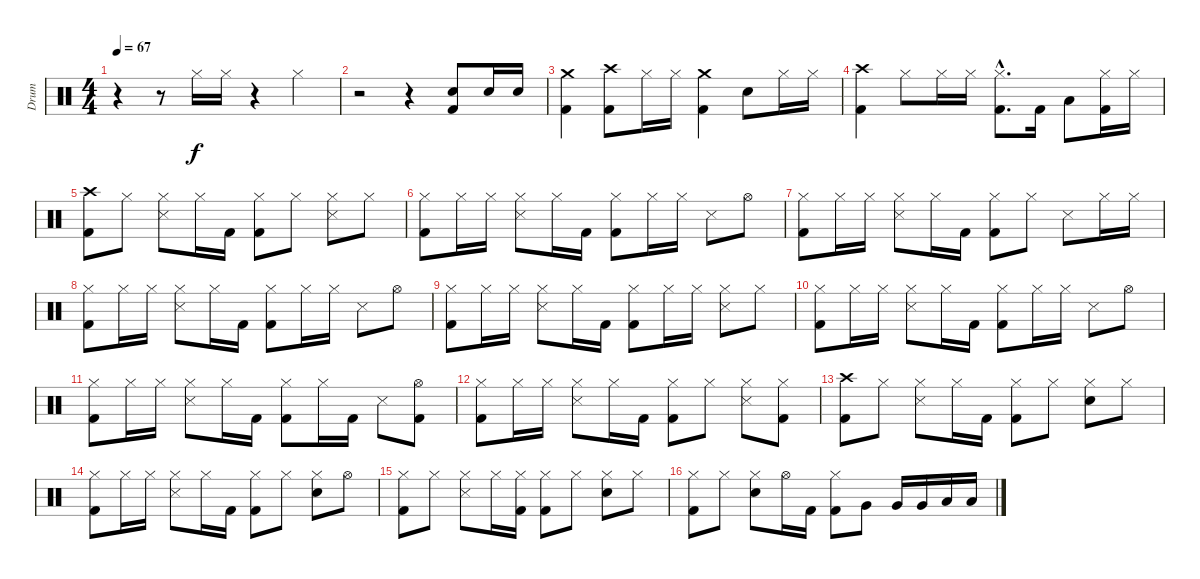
\track ("Drum" "Drum") {instrument percussion}
\staff {score}
\articulation defaults
\ts (4 4)
\tempo 67
\clef neutral
\ks c
r.4{dy f} r.8 "Hi-Hat (closed)".16 "Hi-Hat (closed)".16 r.4 "Hi-Hat (closed)".4 |
r.2 r.4 ("Electric Snare (hit)" "Kick (hit) 2").8 "Electric Snare (hit)".16 "Electric Snare (hit)".16 |
("Crash medium (hit)" "Kick (hit) 2").4 ("Crash high (hit)" "Kick (hit) 2").8 "Hi-Hat (closed)".16 "Hi-Hat (closed)".16 ("Crash medium (hit)" "Kick (hit) 2").4 "Electric Snare (hit)".8 "Hi-Hat (closed)".16 "Hi-Hat (closed)".16 |
("Crash high (hit)" "Kick (hit) 2").4 "Hi-Hat (closed)".8 "Hi-Hat (closed)".16 "Hi-Hat (closed)".16 ("Hi-Hat (closed)"{hac} "Kick (hit) 2"{hac}).8{d} "Kick (hit) 2".16 "Low Floor Tom (hit)".8 ("Hi-Hat (closed)" "Kick (hit) 2").16 "Hi-Hat (closed)".16 |
("Crash high (hit)" "Kick (hit) 2").8 "Hi-Hat (closed)".8 ("Hi-Hat (closed)" "Snare (side stick) 3").8 "Hi-Hat (closed)".16 "Kick (hit) 2".16 ("Hi-Hat (closed)" "Kick (hit) 2").8 "Hi-Hat (closed)".8 ("Hi-Hat (closed)" "Snare (side stick) 3").8 "Hi-Hat (closed)".8 |
("Hi-Hat (closed)" "Kick (hit) 2").8 "Hi-Hat (closed)".16 "Hi-Hat (closed)".16 ("Hi-Hat (closed)" "Snare (side stick) 3").8 "Hi-Hat (closed)".16 "Kick (hit) 2".16 ("Hi-Hat (closed)" "Kick (hit) 2").8 "Hi-Hat (closed)".16 "Hi-Hat (closed)".16 "Snare (side stick) 3".8 "Hi-Hat (open)".8 |
("Hi-Hat (closed)" "Kick (hit) 2").8 "Hi-Hat (closed)".16 "Hi-Hat (closed)".16 ("Hi-Hat (closed)" "Snare (side stick) 3").8 "Hi-Hat (closed)".16 "Kick (hit) 2".16 ("Hi-Hat (closed)" "Kick (hit) 2").8 "Hi-Hat (closed)".8 "Snare (side stick) 3".8 "Hi-Hat (closed)".16 "Hi-Hat (closed)".16 |
("Hi-Hat (closed)" "Kick (hit) 2").8 "Hi-Hat (closed)".16 "Hi-Hat (closed)".16 ("Hi-Hat (closed)" "Snare (side stick) 3").8 "Hi-Hat (closed)".16 "Kick (hit) 2".16 ("Hi-Hat (closed)" "Kick (hit) 2").8 "Hi-Hat (closed)".16 "Hi-Hat (closed)".16 "Snare (side stick) 3".8 "Hi-Hat (open)".8 |
("Hi-Hat (closed)" "Kick (hit) 2").8 "Hi-Hat (closed)".16 "Hi-Hat (closed)".16 ("Hi-Hat (closed)" "Snare (side stick) 3").8 "Hi-Hat (closed)".16 "Kick (hit) 2".16 ("Hi-Hat (closed)" "Kick (hit) 2").8 "Hi-Hat (closed)".16 "Hi-Hat (closed)".16 ("Hi-Hat (closed)" "Snare (side stick) 3").8 "Hi-Hat (closed)".8 |
("Hi-Hat (closed)" "Kick (hit) 2").8 "Hi-Hat (closed)".16 "Hi-Hat (closed)".16 ("Hi-Hat (closed)" "Snare (side stick) 3").8 "Hi-Hat (closed)".16 "Kick (hit) 2".16 ("Hi-Hat (closed)" "Kick (hit) 2").8 "Hi-Hat (closed)".16 "Hi-Hat (closed)".16 "Snare (side stick) 3".8 "Hi-Hat (open)".8 |
("Hi-Hat (closed)" "Kick (hit) 2").8 "Hi-Hat (closed)".16 "Hi-Hat (closed)".16 ("Hi-Hat (closed)" "Snare (side stick) 3").8 "Hi-Hat (closed)".16 "Kick (hit) 2".16 ("Hi-Hat (closed)" "Kick (hit) 2").8 "Hi-Hat (closed)".16 "Kick (hit) 2".16 "Snare (side stick) 3".8 ("Hi-Hat (open)" "Kick (hit) 2").8 |
("Hi-Hat (closed)" "Kick (hit) 2").8 "Hi-Hat (closed)".16 "Hi-Hat (closed)".16 ("Hi-Hat (closed)" "Snare (side stick) 3").8 "Hi-Hat (closed)".16 "Kick (hit) 2".16 ("Hi-Hat (closed)" "Kick (hit) 2").8 "Hi-Hat (closed)".8 ("Hi-Hat (closed)" "Snare (side stick) 3").8 ("Hi-Hat (closed)" "Kick (hit) 2").8 |
("Crash high (hit)" "Kick (hit) 2").8 "Hi-Hat (closed)".8 ("Hi-Hat (closed)" "Snare (side stick) 3").8 "Hi-Hat (closed)".16 "Kick (hit) 2".16 ("Hi-Hat (closed)" "Kick (hit) 2").8 "Hi-Hat (closed)".8 ("Hi-Hat (closed)" "Electric Snare (hit)").8 "Hi-Hat (closed)".8 |
("Hi-Hat (closed)" "Kick (hit) 2").8 "Hi-Hat (closed)".16 "Hi-Hat (closed)".16 ("Hi-Hat (closed)" "Snare (side stick) 3").8 "Hi-Hat (closed)".16 "Kick (hit) 2".16 ("Hi-Hat (closed)" "Kick (hit) 2").8 "Hi-Hat (closed)".8 ("Hi-Hat (closed)" "Electric Snare (hit)").8 "Hi-Hat (open)".8 |
("Hi-Hat (closed)" "Kick (hit) 2").8 "Hi-Hat (closed)".8 ("Hi-Hat (closed)" "Snare (side stick) 3").8 "Hi-Hat (closed)".16 ("Hi-Hat (closed)" "Kick (hit) 2").16 ("Hi-Hat (closed)" "Kick (hit) 2").8 "Hi-Hat (closed)".8 ("Hi-Hat (closed)" "Electric Snare (hit)").8 "Hi-Hat (closed)".8 |
("Hi-Hat (closed)" "Kick (hit) 2").8 "Hi-Hat (closed)".8 ("Hi-Hat (closed)" "Electric Snare (hit)").8 "Hi-Hat (open)".16 "Kick (hit) 2".16 ("Hi-Hat (closed)" "Kick (hit) 2").8 "Very Low Tom (hit)".8 "Very Low Tom (hit)".16 "Very Low Tom (hit)".16 "Low Floor Tom (hit)".16 "Low Floor Tom (hit)".16
